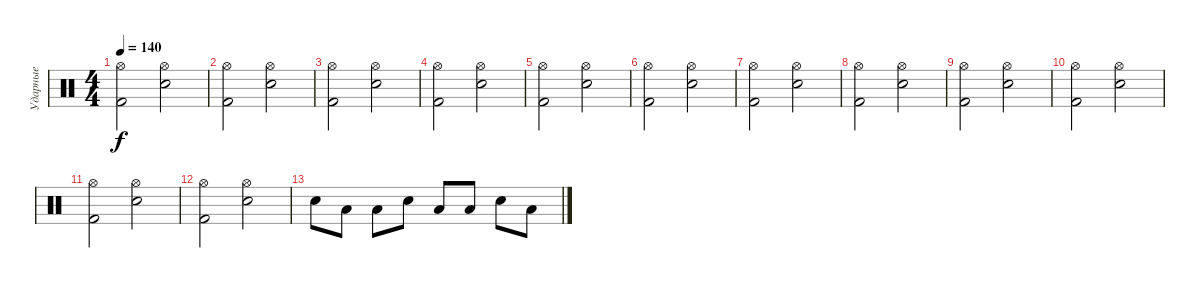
\track ("Ударные" "Ударные") {instrument percussion}
\staff {score}
\articulation defaults
\ts (4 4)
\tempo 140
\clef neutral
\ks c
("Hi-Hat (open)" "Kick (hit) 2").2{dy f} ("Hi-Hat (open)" "Electric Snare (hit)").2 |
("Hi-Hat (open)" "Kick (hit) 2").2 ("Hi-Hat (open)" "Electric Snare (hit)").2 |
("Hi-Hat (open)" "Kick (hit) 2").2 ("Hi-Hat (open)" "Electric Snare (hit)").2 |
("Hi-Hat (open)" "Kick (hit) 2").2 ("Hi-Hat (open)" "Electric Snare (hit)").2 |
("Hi-Hat (open)" "Kick (hit) 2").2 ("Hi-Hat (open)" "Electric Snare (hit)").2 |
("Hi-Hat (open)" "Kick (hit) 2").2 ("Hi-Hat (open)" "Electric Snare (hit)").2 |
("Hi-Hat (open)" "Kick (hit) 2").2 ("Hi-Hat (open)" "Electric Snare (hit)").2 |
("Hi-Hat (open)" "Kick (hit) 2").2 ("Hi-Hat (open)" "Electric Snare (hit)").2 |
("Hi-Hat (open)" "Kick (hit) 2").2 ("Hi-Hat (open)" "Electric Snare (hit)").2 |
("Hi-Hat (open)" "Kick (hit) 2").2 ("Hi-Hat (open)" "Electric Snare (hit)").2 |
("Hi-Hat (open)" "Kick (hit) 2").2 ("Hi-Hat (open)" "Electric Snare (hit)").2 |
("Hi-Hat (open)" "Kick (hit) 2").2 ("Hi-Hat (open)" "Electric Snare (hit)").2 |
"Electric Snare (hit)".8 "Low Tom (hit)".8 "Low Tom (hit)".8 "Electric Snare (hit)".8 "Low Tom (hit)".8 "Low Tom (hit)".8 "Electric Snare (hit)".8 "Low Tom (hit)".8
